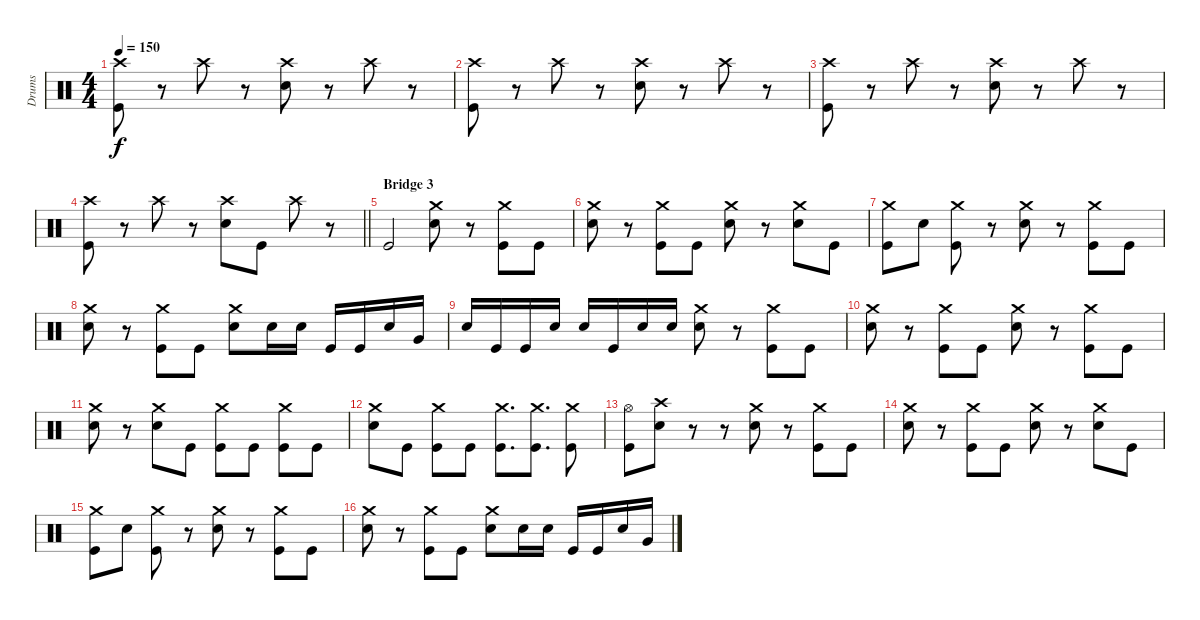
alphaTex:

\track ("Drums" "Drums") {instrument percussion}
\staff {score}
\articulation defaults
\ts (4 4)
\tempo 150
\clef neutral
\ks c
("Crash high (hit)" "Kick (hit)").8{dy f} r.8 "Crash high (hit)".8 r.8 ("Crash high (hit)" "Electric Snare (hit)").8 r.8 "Crash high (hit)".8 r.8 |
("Crash high (hit)" "Kick (hit)").8 r.8 "Crash high (hit)".8 r.8 ("Crash high (hit)" "Electric Snare (hit)").8 r.8 "Crash high (hit)".8 r.8 |
("Crash high (hit)" "Kick (hit)").8 r.8 "Crash high (hit)".8 r.8 ("Crash high (hit)" "Electric Snare (hit)").8 r.8 "Crash high (hit)".8 r.8 |
\barLineRight lightlight
("Crash high (hit)" "Kick (hit)").8 r.8 "Crash high (hit)".8 r.8 ("Crash high (hit)" "Electric Snare (hit)").8 "Kick (hit)".8 "Crash high (hit)".8 r.8 |
\section ("" "Bridge 3")
"Kick (hit)".2 ("Crash medium (hit)" "Electric Snare (hit)").8 r.8 ("Crash medium (hit)" "Kick (hit)").8 "Kick (hit)".8 |
("Crash medium (hit)" "Electric Snare (hit)").8 r.8 ("Crash medium (hit)" "Kick (hit)").8 "Kick (hit)".8 ("Crash medium (hit)" "Electric Snare (hit)").8 r.8 ("Crash medium (hit)" "Electric Snare (hit)").8 "Kick (hit)".8 |
("Crash medium (hit)" "Kick (hit)").8 "Electric Snare (hit)".8 ("Crash medium (hit)" "Kick (hit)").8 r.8 ("Crash medium (hit)" "Electric Snare (hit)").8 r.8 ("Crash medium (hit)" "Kick (hit)").8 "Kick (hit)".8 |
("Crash medium (hit)" "Electric Snare (hit)").8 r.8 ("Crash medium (hit)" "Kick (hit)").8 "Kick (hit)".8 ("Crash medium (hit)" "Electric Snare (hit)").8 "Electric Snare (hit)".16 "Electric Snare (hit)".16 "Kick (hit)".16 "Kick (hit)".16 "Electric Snare (hit)".16 "Very Low Tom (hit)".16 |
"Electric Snare (hit)".16 "Kick (hit)".16 "Kick (hit)".16 "Electric Snare (hit)".16 "Electric Snare (hit)".16 "Kick (hit)".16 "Electric Snare (hit)".16 "Electric Snare (hit)".16 ("Crash medium (hit)" "Electric Snare (hit)").8 r.8 ("Crash medium (hit)" "Kick (hit)").8 "Kick (hit)".8 |
("Crash medium (hit)" "Electric Snare (hit)").8 r.8 ("Crash medium (hit)" "Kick (hit)").8 "Kick (hit)".8 ("Crash medium (hit)" "Electric Snare (hit)").8 r.8 ("Crash medium (hit)" "Kick (hit)").8 "Kick (hit)".8 |
("Crash medium (hit)" "Electric Snare (hit)").8 r.8 ("Crash medium (hit)" "Electric Snare (hit)").8 "Kick (hit)".8 ("Crash medium (hit)" "Kick (hit)").8 "Kick (hit)".8 ("Crash medium (hit)" "Kick (hit)").8 "Kick (hit)".8 |
("Crash medium (hit)" "Electric Snare (hit)").8 "Kick (hit)".8 ("Crash medium (hit)" "Kick (hit)").8 "Kick (hit)".8 ("Crash medium (hit)" "Kick (hit)").8{d} ("Crash medium (hit)" "Kick (hit)").8{d} ("Crash medium (hit)" "Kick (hit)").8 |
("Hi-Hat (open)" "Kick (hit)").8 ("Crash high (hit)" "Electric Snare (hit)").8 r.8 r.8 ("Crash medium (hit)" "Electric Snare (hit)").8 r.8 ("Crash medium (hit)" "Kick (hit)").8 "Kick (hit)".8 |
("Crash medium (hit)" "Electric Snare (hit)").8 r.8 ("Crash medium (hit)" "Kick (hit)").8 "Kick (hit)".8 ("Crash medium (hit)" "Electric Snare (hit)").8 r.8 ("Crash medium (hit)" "Electric Snare (hit)").8 "Kick (hit)".8 |
("Crash medium (hit)" "Kick (hit)").8 "Electric Snare (hit)".8 ("Crash medium (hit)" "Kick (hit)").8 r.8 ("Crash medium (hit)" "Electric Snare (hit)").8 r.8 ("Crash medium (hit)" "Kick (hit)").8 "Kick (hit)".8 |
("Crash medium (hit)" "Electric Snare (hit)").8 r.8 ("Crash medium (hit)" "Kick (hit)").8 "Kick (hit)".8 ("Crash medium (hit)" "Electric Snare (hit)").8 "Electric Snare (hit)".16 "Electric Snare (hit)".16 "Kick (hit)".16 "Kick (hit)".16 "Electric Snare (hit)".16 "Very Low Tom (hit)".16
